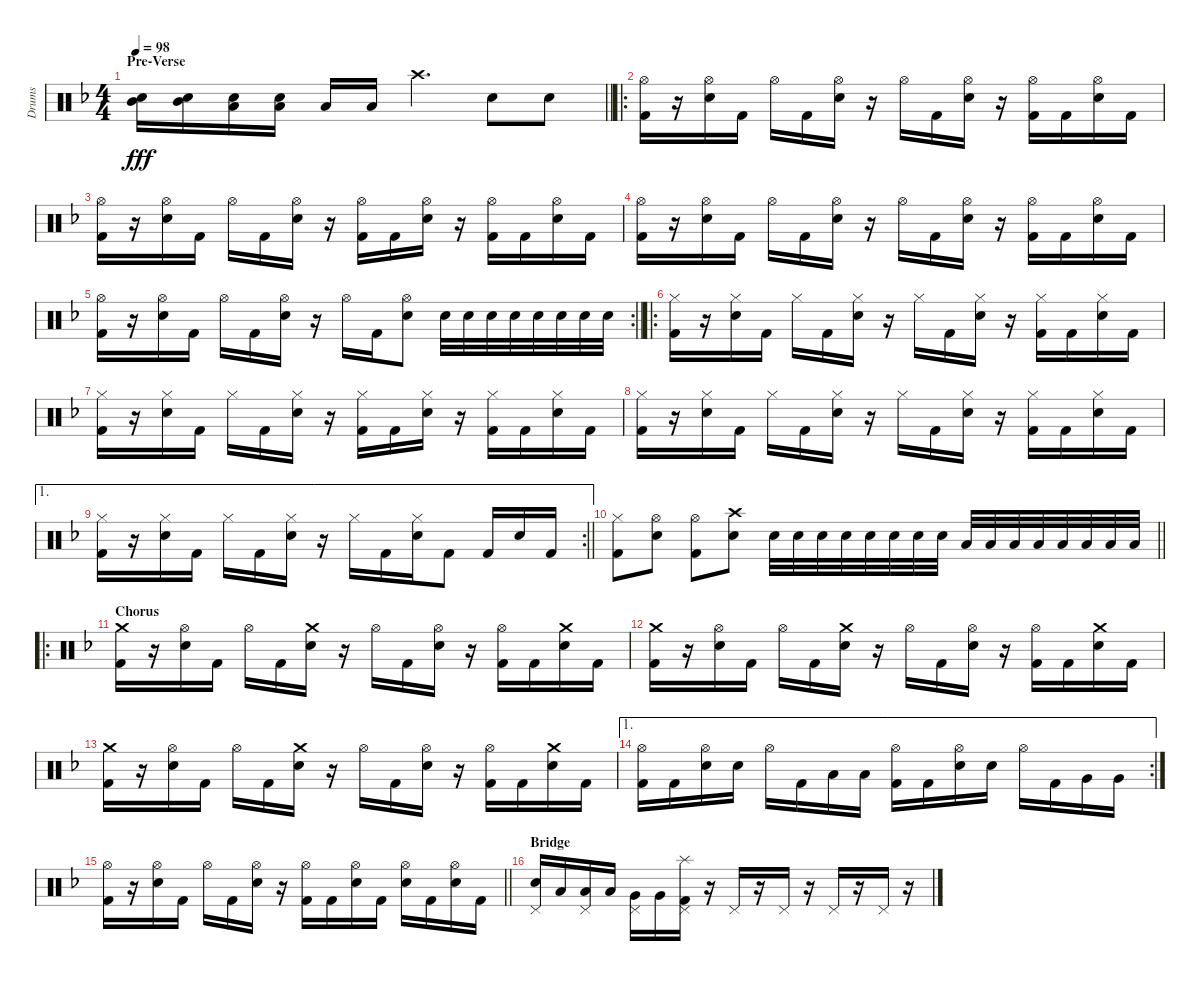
\track ("Drums" "Drums") {instrument percussion}
\staff {score}
\articulation defaults
\ts (4 4)
\section ("" "Pre-Verse")
\tempo 98
\clef neutral
\barLineRight lightlight
\ks f
("Mid Tom (hit)" "Snare (hit) 2").16{dy fff} ("Mid Tom (hit)" "Snare (hit) 2").16 ("Low Tom (hit)" "Snare (hit) 2").16 ("Low Tom (hit)" "Snare (hit) 2").16 "Low Floor Tom (hit)".16 "Low Floor Tom (hit)".16 "Crash high (hit)".4{d} "Snare (hit) 2".8 "Snare (hit) 2".8 |
\ro
("Hi-Hat (open)" "Kick (hit) 2").16 r.16 ("Hi-Hat (open)" "Snare (hit) 2").16 "Kick (hit) 2".16 "Hi-Hat (open)".16 "Kick (hit) 2".16 ("Hi-Hat (open)" "Snare (hit) 2").16 r.16 "Hi-Hat (open)".16 "Kick (hit) 2".16 ("Hi-Hat (open)" "Snare (hit) 2").16 r.16 ("Hi-Hat (open)" "Kick (hit) 2").16 "Kick (hit) 2".16 ("Hi-Hat (open)" "Snare (hit) 2").16 "Kick (hit) 2".16 |
("Hi-Hat (open)" "Kick (hit) 2").16 r.16 ("Hi-Hat (open)" "Snare (hit) 2").16 "Kick (hit) 2".16 "Hi-Hat (open)".16 "Kick (hit) 2".16 ("Hi-Hat (open)" "Snare (hit) 2").16 r.16 ("Hi-Hat (open)" "Kick (hit) 2").16 "Kick (hit) 2".16 ("Hi-Hat (open)" "Snare (hit) 2").16 r.16 ("Hi-Hat (open)" "Kick (hit) 2").16 "Kick (hit) 2".16 ("Hi-Hat (open)" "Snare (hit) 2").16 "Kick (hit) 2".16 |
("Hi-Hat (open)" "Kick (hit) 2").16 r.16 ("Hi-Hat (open)" "Snare (hit) 2").16 "Kick (hit) 2".16 "Hi-Hat (open)".16 "Kick (hit) 2".16 ("Hi-Hat (open)" "Snare (hit) 2").16 r.16 "Hi-Hat (open)".16 "Kick (hit) 2".16 ("Hi-Hat (open)" "Snare (hit) 2").16 r.16 ("Hi-Hat (open)" "Kick (hit) 2").16 "Kick (hit) 2".16 ("Hi-Hat (open)" "Snare (hit) 2").16 "Kick (hit) 2".16 |
\rc 2
\barLineRight lightlight
("Hi-Hat (open)" "Kick (hit) 2").16 r.16 ("Hi-Hat (open)" "Snare (hit) 2").16 "Kick (hit) 2".16 "Hi-Hat (open)".16 "Kick (hit) 2".16 ("Hi-Hat (open)" "Snare (hit) 2").16 r.16 "Hi-Hat (open)".16 "Kick (hit) 2".16 ("Hi-Hat (open)" "Snare (hit) 2").8 "Snare (hit) 2".32 "Snare (hit) 2".32 "Snare (hit) 2".32 "Snare (hit) 2".32 "Snare (hit) 2".32 "Snare (hit) 2".32 "Snare (hit) 2".32 "Snare (hit) 2".32 |
\ro
("Hi-Hat (closed)" "Kick (hit) 2").16 r.16 ("Hi-Hat (closed)" "Snare (hit) 2").16 "Kick (hit) 2".16 "Hi-Hat (closed)".16 "Kick (hit) 2".16 ("Hi-Hat (closed)" "Snare (hit) 2").16 r.16 "Hi-Hat (closed)".16 "Kick (hit) 2".16 ("Hi-Hat (closed)" "Snare (hit) 2").16 r.16 ("Hi-Hat (closed)" "Kick (hit) 2").16 "Kick (hit) 2".16 ("Hi-Hat (closed)" "Snare (hit) 2").16 "Kick (hit) 2".16 |
("Hi-Hat (closed)" "Kick (hit) 2").16 r.16 ("Hi-Hat (closed)" "Snare (hit) 2").16 "Kick (hit) 2".16 "Hi-Hat (closed)".16 "Kick (hit) 2".16 ("Hi-Hat (closed)" "Snare (hit) 2").16 r.16 ("Hi-Hat (closed)" "Kick (hit) 2").16 "Kick (hit) 2".16 ("Hi-Hat (closed)" "Snare (hit) 2").16 r.16 ("Hi-Hat (closed)" "Kick (hit) 2").16 "Kick (hit) 2".16 ("Hi-Hat (closed)" "Snare (hit) 2").16 "Kick (hit) 2".16 |
("Hi-Hat (closed)" "Kick (hit) 2").16 r.16 ("Hi-Hat (closed)" "Snare (hit) 2").16 "Kick (hit) 2".16 "Hi-Hat (closed)".16 "Kick (hit) 2".16 ("Hi-Hat (closed)" "Snare (hit) 2").16 r.16 "Hi-Hat (closed)".16 "Kick (hit) 2".16 ("Hi-Hat (closed)" "Snare (hit) 2").16 r.16 ("Hi-Hat (closed)" "Kick (hit) 2").16 "Kick (hit) 2".16 ("Hi-Hat (closed)" "Snare (hit) 2").16 "Kick (hit) 2".16 |
\ae 1
\rc 2
\barLineRight lightlight
("Hi-Hat (closed)" "Kick (hit) 2").16 r.16 ("Hi-Hat (closed)" "Snare (hit) 2").16 "Kick (hit) 2".16 "Hi-Hat (closed)".16 "Kick (hit) 2".16 ("Hi-Hat (closed)" "Snare (hit) 2").16 r.16 "Hi-Hat (closed)".16 "Kick (hit) 2".16 ("Hi-Hat (closed)" "Snare (hit) 2").16 "Kick (hit) 2".8 "Kick (hit) 2".16 "Snare (hit) 2".16 "Kick (hit) 2".16 |
\barLineRight lightlight
("Hi-Hat (closed)" "Kick (hit) 2").8 ("Hi-Hat (open)" "Snare (hit) 2").8 ("Hi-Hat (open)" "Kick (hit) 2").8 ("Crash high (hit)" "Snare (hit) 2").8 "Snare (hit) 2".32 "Snare (hit) 2".32 "Snare (hit) 2".32 "Snare (hit) 2".32 "Snare (hit) 2".32 "Snare (hit) 2".32 "Snare (hit) 2".32 "Snare (hit) 2".32 "Low Tom (hit)".32 "Low Tom (hit)".32 "Low Tom (hit)".32 "Low Tom (hit)".32 "Low Floor Tom (hit)".32 "Low Floor Tom (hit)".32 "Low Floor Tom (hit)".32 "Low Floor Tom (hit)".32 |
\ro
\section ("" "Chorus")
("Crash medium (hit)" "Kick (hit) 2").16 r.16 ("Hi-Hat (open)" "Snare (hit) 2").16 "Kick (hit) 2".16 "Hi-Hat (open)".16 "Kick (hit) 2".16 ("Crash medium (hit)" "Snare (hit) 2").16 r.16 "Hi-Hat (open)".16 "Kick (hit) 2".16 ("Hi-Hat (open)" "Snare (hit) 2").16 r.16 ("Hi-Hat (open)" "Kick (hit) 2").16 "Kick (hit) 2".16 ("Crash medium (hit)" "Snare (hit) 2").16 "Kick (hit) 2".16 |
("Crash medium (hit)" "Kick (hit) 2").16 r.16 ("Hi-Hat (open)" "Snare (hit) 2").16 "Kick (hit) 2".16 "Hi-Hat (open)".16 "Kick (hit) 2".16 ("Crash medium (hit)" "Snare (hit) 2").16 r.16 "Hi-Hat (open)".16 "Kick (hit) 2".16 ("Hi-Hat (open)" "Snare (hit) 2").16 r.16 ("Hi-Hat (open)" "Kick (hit) 2").16 "Kick (hit) 2".16 ("Crash medium (hit)" "Snare (hit) 2").16 "Kick (hit) 2".16 |
("Crash medium (hit)" "Kick (hit) 2").16 r.16 ("Hi-Hat (open)" "Snare (hit) 2").16 "Kick (hit) 2".16 "Hi-Hat (open)".16 "Kick (hit) 2".16 ("Crash medium (hit)" "Snare (hit) 2").16 r.16 "Hi-Hat (open)".16 "Kick (hit) 2".16 ("Hi-Hat (open)" "Snare (hit) 2").16 r.16 ("Hi-Hat (open)" "Kick (hit) 2").16 "Kick (hit) 2".16 ("Crash medium (hit)" "Snare (hit) 2").16 "Kick (hit) 2".16 |
\ae 1
\rc 2
("Hi-Hat (open)" "Kick (hit) 2").16 "Kick (hit) 2".16 ("Hi-Hat (open)" "Snare (hit) 2").16 "Snare (hit) 2".16 "Hi-Hat (open)".16 "Kick (hit) 2".16 "Low Tom (hit)".16 "Low Tom (hit)".16 ("Hi-Hat (open)" "Kick (hit) 2").16 "Kick (hit) 2".16 ("Hi-Hat (open)" "Snare (hit) 2").16 "Snare (hit) 2".16 "Hi-Hat (open)".16 "Kick (hit) 2".16 "Very Low Tom (hit)".16 "Very Low Tom (hit)".16 |
\barLineRight lightlight
("Hi-Hat (open)" "Kick (hit) 2").16 r.16 ("Hi-Hat (open)" "Snare (hit) 2").16 "Kick (hit) 2".16 "Hi-Hat (open)".16 "Kick (hit) 2".16 ("Hi-Hat (open)" "Snare (hit) 2").16 r.16 ("Hi-Hat (open)" "Kick (hit) 2").16 "Kick (hit) 2".16 ("Hi-Hat (open)" "Snare (hit) 2").16 "Kick (hit) 2".16 ("Hi-Hat (open)" "Snare (hit) 2").16 "Kick (hit) 2".16 ("Hi-Hat (open)" "Snare (hit) 2").16 "Kick (hit) 2".16 |
\section ("" "Bridge")
("Pedal Hi-Hat (hit)" "Snare (hit) 2").16 "Low Tom (hit)".16 ("Pedal Hi-Hat (hit)" "Low Tom (hit)").16 "Low Tom (hit)".16 ("Pedal Hi-Hat (hit)" "Very Low Tom (hit)").16 "Very Low Tom (hit)".16 ("Pedal Hi-Hat (hit)" "Splash (hit)" "Kick (hit) 2").16 r.16 "Pedal Hi-Hat (hit)".16 r.16 "Pedal Hi-Hat (hit)".16 r.16 "Pedal Hi-Hat (hit)".16 r.16 "Pedal Hi-Hat (hit)".16 r.16
